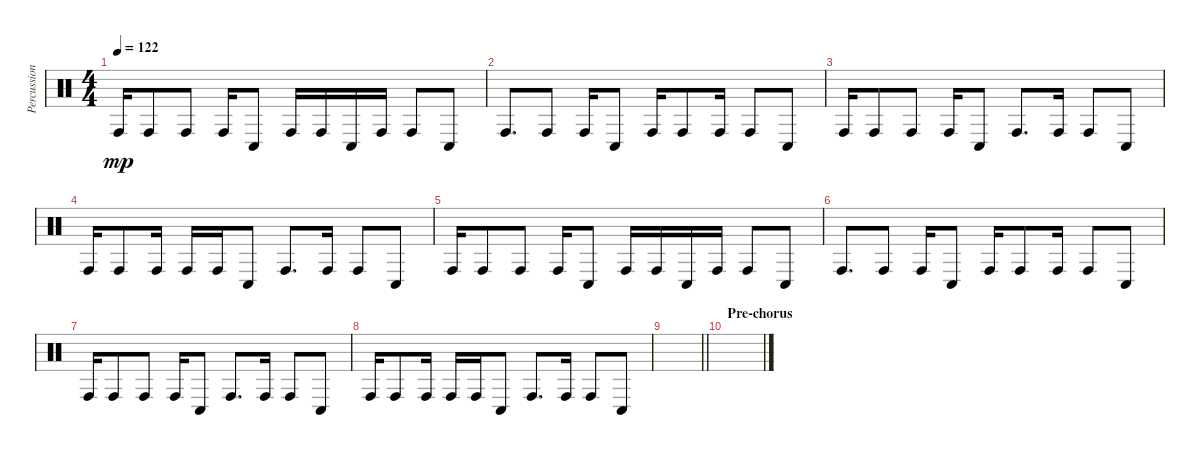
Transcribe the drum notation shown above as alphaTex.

\track ("Percussion" "Percussion") {instrument percussion}
\staff {score}
\articulation defaults
\ts (4 4)
\tempo 122
\clef neutral
\ks c "Conga high (hit)".16{dy mp} "Conga high (hit)".8 "Conga high (hit)".8 "Conga high (hit)".16 "Conga low (hit)".8 "Conga high (hit)".16 "Conga high (hit)".16 "Conga low (hit)".16 "Conga high (hit)".16 "Conga high (hit)".8 "Conga low (hit)".8
|
"Conga high (hit)".8{d} "Conga high (hit)".8 "Conga high (hit)".16 "Conga low (hit)".8 "Conga high (hit)".16 "Conga high (hit)".8 "Conga high (hit)".16 "Conga high (hit)".8 "Conga low (hit)".8 |
"Conga high (hit)".16 "Conga high (hit)".8 "Conga high (hit)".8 "Conga high (hit)".16 "Conga low (hit)".8 "Conga high (hit)".8{d} "Conga high (hit)".16 "Conga high (hit)".8 "Conga low (hit)".8 |
"Conga high (hit)".16 "Conga high (hit)".8 "Conga high (hit)".16 "Conga high (hit)".16 "Conga high (hit)".16 "Conga low (hit)".8 "Conga high (hit)".8{d} "Conga high (hit)".16 "Conga high (hit)".8 "Conga low (hit)".8 |
"Conga high (hit)".16 "Conga high (hit)".8 "Conga high (hit)".8 "Conga high (hit)".16 "Conga low (hit)".8 "Conga high (hit)".16 "Conga high (hit)".16 "Conga low (hit)".16 "Conga high (hit)".16 "Conga high (hit)".8 "Conga low (hit)".8 |
"Conga high (hit)".8{d} "Conga high (hit)".8 "Conga high (hit)".16 "Conga low (hit)".8 "Conga high (hit)".16 "Conga high (hit)".8 "Conga high (hit)".16 "Conga high (hit)".8 "Conga low (hit)".8 |
"Conga high (hit)".16 "Conga high (hit)".8 "Conga high (hit)".8 "Conga high (hit)".16 "Conga low (hit)".8 "Conga high (hit)".8{d} "Conga high (hit)".16 "Conga high (hit)".8 "Conga low (hit)".8 |
"Conga high (hit)".16 "Conga high (hit)".8 "Conga high (hit)".16 "Conga high (hit)".16 "Conga high (hit)".16 "Conga low (hit)".8 "Conga high (hit)".8{d} "Conga high (hit)".16 "Conga high (hit)".8 "Conga low (hit)".8 |
\barLineRight lightlight
|
\section ("" "Pre-chorus")
